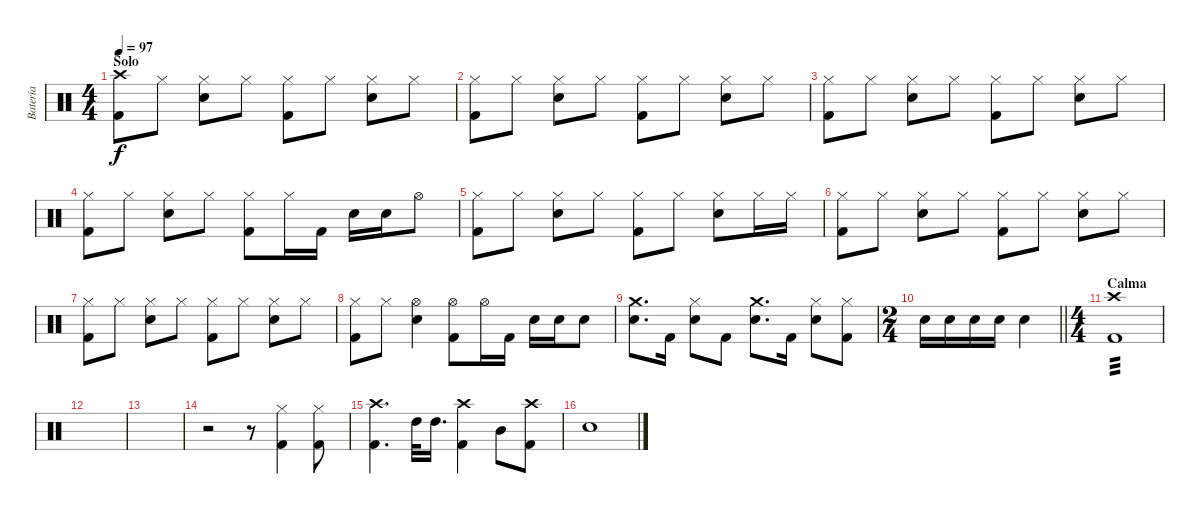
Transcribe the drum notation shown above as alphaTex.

\track ("Batería" "Batería") {instrument percussion}
\staff {score}
\articulation defaults
\ts (4 4)
\section ("" "Solo")
\tempo 97
\clef neutral
\ks c
("Crash high (hit)" "Kick (hit) 2").8{dy f} "Hi-Hat (closed)".8 ("Hi-Hat (closed)" "Snare (hit) 2").8 "Hi-Hat (closed)".8 ("Hi-Hat (closed)" "Kick (hit) 2").8 "Hi-Hat (closed)".8 ("Hi-Hat (closed)" "Snare (hit) 2").8 "Hi-Hat (closed)".8 |
("Hi-Hat (closed)" "Kick (hit) 2").8 "Hi-Hat (closed)".8 ("Hi-Hat (closed)" "Snare (hit) 2").8 "Hi-Hat (closed)".8 ("Hi-Hat (closed)" "Kick (hit) 2").8 "Hi-Hat (closed)".8 ("Hi-Hat (closed)" "Snare (hit) 2").8 "Hi-Hat (closed)".8 |
("Hi-Hat (closed)" "Kick (hit) 2").8 "Hi-Hat (closed)".8 ("Hi-Hat (closed)" "Snare (hit) 2").8 "Hi-Hat (closed)".8 ("Hi-Hat (closed)" "Kick (hit) 2").8 "Hi-Hat (closed)".8 ("Hi-Hat (closed)" "Snare (hit) 2").8 "Hi-Hat (closed)".8 |
("Hi-Hat (closed)" "Kick (hit) 2").8 "Hi-Hat (closed)".8 ("Hi-Hat (closed)" "Snare (hit) 2").8 "Hi-Hat (closed)".8 ("Hi-Hat (closed)" "Kick (hit) 2").8 "Hi-Hat (closed)".16 "Kick (hit) 2".16 "Snare (hit) 2".16 "Snare (hit) 2".16 "Hi-Hat (open)".8 |
("Hi-Hat (closed)" "Kick (hit) 2").8 "Hi-Hat (closed)".8 ("Hi-Hat (closed)" "Snare (hit) 2").8 "Hi-Hat (closed)".8 ("Hi-Hat (closed)" "Kick (hit) 2").8 "Hi-Hat (closed)".8 ("Hi-Hat (closed)" "Snare (hit) 2").8 "Hi-Hat (closed)".16 "Hi-Hat (closed)".16 |
("Hi-Hat (closed)" "Kick (hit) 2").8 "Hi-Hat (closed)".8 ("Hi-Hat (closed)" "Snare (hit) 2").8 "Hi-Hat (closed)".8 ("Hi-Hat (closed)" "Kick (hit) 2").8 "Hi-Hat (closed)".8 ("Hi-Hat (closed)" "Snare (hit) 2").8 "Hi-Hat (closed)".8 |
("Hi-Hat (closed)" "Kick (hit) 2").8 "Hi-Hat (closed)".8 ("Hi-Hat (closed)" "Snare (hit) 2").8 "Hi-Hat (closed)".8 ("Hi-Hat (closed)" "Kick (hit) 2").8 "Hi-Hat (closed)".8 ("Hi-Hat (closed)" "Snare (hit) 2").8 "Hi-Hat (closed)".8 |
("Hi-Hat (closed)" "Kick (hit) 2").8 "Hi-Hat (closed)".8 ("Hi-Hat (open)" "Snare (hit) 2").4 ("Hi-Hat (open)" "Kick (hit) 2").8 "Hi-Hat (open)".16 "Kick (hit) 2".16 "Snare (hit) 2".16 "Snare (hit) 2".16 "Snare (hit) 2".8 |
("Snare (hit) 2" "Crash medium (hit)").8{d} "Kick (hit) 2".16 ("Hi-Hat (closed)" "Snare (hit) 2").8 "Kick (hit) 2".8 ("Snare (hit) 2" "Crash medium (hit)").8{d} "Kick (hit) 2".16 ("Hi-Hat (closed)" "Snare (hit) 2").8 ("Hi-Hat (closed)" "Kick (hit) 2").8 |
\ts (2 4)
\barLineRight lightlight "Snare (hit) 2".16 "Snare (hit) 2".16 "Snare (hit) 2".16 "Snare (hit) 2".16 "Snare (hit) 2".4
|
\ts (4 4)
\section ("" "Calma")
("Crash high (hit)" "Kick (hit) 2").1{tp 3} |
|
|
r.2 r.8 ("Kick (hit) 2" "Hi-Hat (closed)").4 ("Kick (hit) 2" "Hi-Hat (closed)").8 |
("Kick (hit) 2" "Crash high (hit)").4{d} "High Tom (hit)".32 "High Tom (hit)".16{d} ("Crash high (hit)" "Kick (hit) 2").4 "Mid Tom (hit)".8 ("Crash high (hit)" "Kick (hit) 2").8 |
"Snare (hit) 2".1
